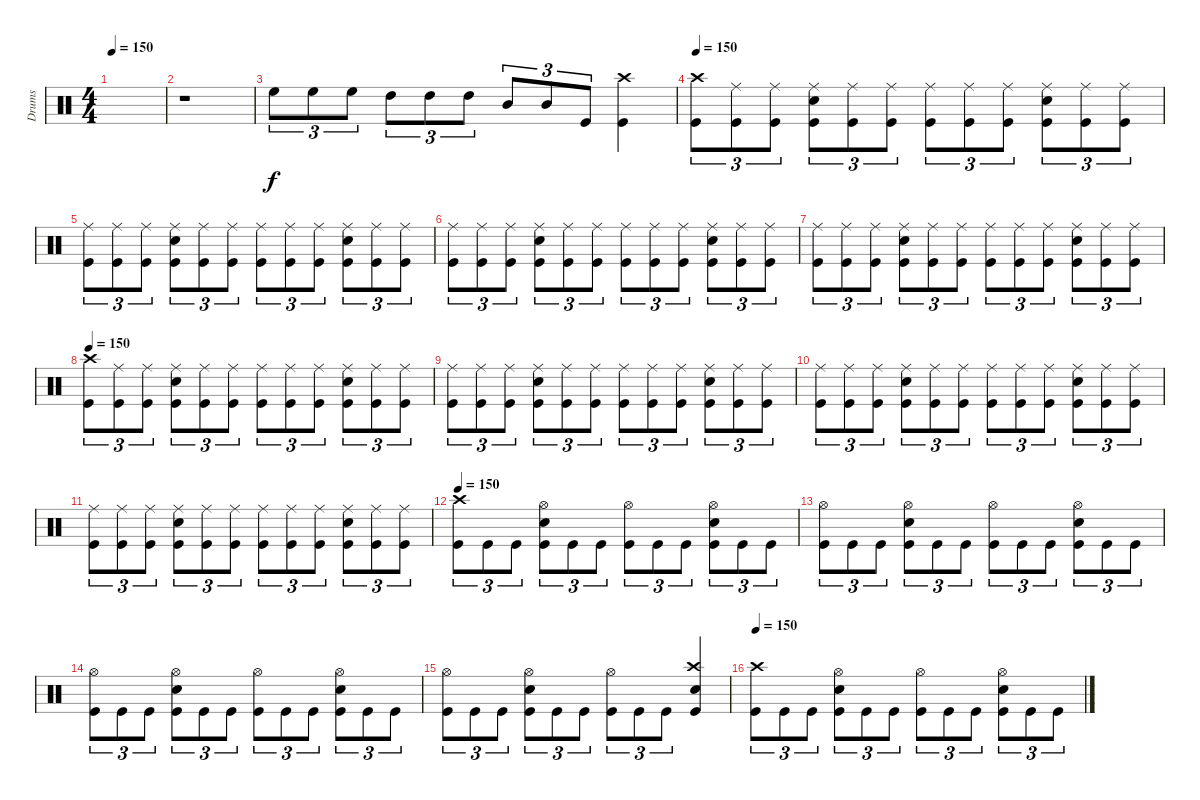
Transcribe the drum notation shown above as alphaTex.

\track ("Drums" "Drums") {instrument percussion}
\staff {score}
\articulation defaults
\ts (4 4)
\tempo 150
\clef neutral
\ks c
|
r.1 |
"High Floor Tom (hit)".8{tu (3 2)} "High Floor Tom (hit)".8{tu (3 2)} "High Floor Tom (hit)".8{tu (3 2)} "High Tom (hit)".8{tu (3 2)} "High Tom (hit)".8{tu (3 2)} "High Tom (hit)".8{tu (3 2)} "Mid Tom (hit)".8{tu (3 2)} "Mid Tom (hit)".8{tu (3 2)} "Kick (hit)".8{tu (3 2)} ("Crash high (hit)" "Kick (hit)").4 |
\tempo 150
("Crash high (hit)" "Kick (hit)").8{tu (3 2)} ("Ride (middle)" "Kick (hit)").8{tu (3 2)} ("Ride (middle)" "Kick (hit)").8{tu (3 2)} ("Ride (middle)" "Snare (hit) 2" "Kick (hit)").8{tu (3 2)} ("Ride (middle)" "Kick (hit)").8{tu (3 2)} ("Ride (middle)" "Kick (hit)").8{tu (3 2)} ("Ride (middle)" "Kick (hit)").8{tu (3 2)} ("Ride (middle)" "Kick (hit)").8{tu (3 2)} ("Ride (middle)" "Kick (hit)").8{tu (3 2)} ("Ride (middle)" "Snare (hit) 2" "Kick (hit)").8{tu (3 2)} ("Ride (middle)" "Kick (hit)").8{tu (3 2)} ("Ride (middle)" "Kick (hit)").8{tu (3 2)} |
("Ride (middle)" "Kick (hit)").8{tu (3 2)} ("Ride (middle)" "Kick (hit)").8{tu (3 2)} ("Ride (middle)" "Kick (hit)").8{tu (3 2)} ("Ride (middle)" "Snare (hit) 2" "Kick (hit)").8{tu (3 2)} ("Ride (middle)" "Kick (hit)").8{tu (3 2)} ("Ride (middle)" "Kick (hit)").8{tu (3 2)} ("Ride (middle)" "Kick (hit)").8{tu (3 2)} ("Ride (middle)" "Kick (hit)").8{tu (3 2)} ("Ride (middle)" "Kick (hit)").8{tu (3 2)} ("Ride (middle)" "Snare (hit) 2" "Kick (hit)").8{tu (3 2)} ("Ride (middle)" "Kick (hit)").8{tu (3 2)} ("Ride (middle)" "Kick (hit)").8{tu (3 2)} |
("Ride (middle)" "Kick (hit)").8{tu (3 2)} ("Ride (middle)" "Kick (hit)").8{tu (3 2)} ("Ride (middle)" "Kick (hit)").8{tu (3 2)} ("Ride (middle)" "Snare (hit) 2" "Kick (hit)").8{tu (3 2)} ("Ride (middle)" "Kick (hit)").8{tu (3 2)} ("Ride (middle)" "Kick (hit)").8{tu (3 2)} ("Ride (middle)" "Kick (hit)").8{tu (3 2)} ("Ride (middle)" "Kick (hit)").8{tu (3 2)} ("Ride (middle)" "Kick (hit)").8{tu (3 2)} ("Ride (middle)" "Snare (hit) 2" "Kick (hit)").8{tu (3 2)} ("Ride (middle)" "Kick (hit)").8{tu (3 2)} ("Ride (middle)" "Kick (hit)").8{tu (3 2)} |
("Ride (middle)" "Kick (hit)").8{tu (3 2)} ("Ride (middle)" "Kick (hit)").8{tu (3 2)} ("Ride (middle)" "Kick (hit)").8{tu (3 2)} ("Ride (middle)" "Snare (hit) 2" "Kick (hit)").8{tu (3 2)} ("Ride (middle)" "Kick (hit)").8{tu (3 2)} ("Ride (middle)" "Kick (hit)").8{tu (3 2)} ("Ride (middle)" "Kick (hit)").8{tu (3 2)} ("Ride (middle)" "Kick (hit)").8{tu (3 2)} ("Ride (middle)" "Kick (hit)").8{tu (3 2)} ("Ride (middle)" "Snare (hit) 2" "Kick (hit)").8{tu (3 2)} ("Ride (middle)" "Kick (hit)").8{tu (3 2)} ("Ride (middle)" "Kick (hit)").8{tu (3 2)} |
\tempo 150
("Crash high (hit)" "Kick (hit)").8{tu (3 2)} ("Ride (middle)" "Kick (hit)").8{tu (3 2)} ("Ride (middle)" "Kick (hit)").8{tu (3 2)} ("Ride (middle)" "Snare (hit) 2" "Kick (hit)").8{tu (3 2)} ("Ride (middle)" "Kick (hit)").8{tu (3 2)} ("Ride (middle)" "Kick (hit)").8{tu (3 2)} ("Ride (middle)" "Kick (hit)").8{tu (3 2)} ("Ride (middle)" "Kick (hit)").8{tu (3 2)} ("Ride (middle)" "Kick (hit)").8{tu (3 2)} ("Ride (middle)" "Snare (hit) 2" "Kick (hit)").8{tu (3 2)} ("Ride (middle)" "Kick (hit)").8{tu (3 2)} ("Ride (middle)" "Kick (hit)").8{tu (3 2)} |
("Ride (middle)" "Kick (hit)").8{tu (3 2)} ("Ride (middle)" "Kick (hit)").8{tu (3 2)} ("Ride (middle)" "Kick (hit)").8{tu (3 2)} ("Ride (middle)" "Snare (hit) 2" "Kick (hit)").8{tu (3 2)} ("Ride (middle)" "Kick (hit)").8{tu (3 2)} ("Ride (middle)" "Kick (hit)").8{tu (3 2)} ("Ride (middle)" "Kick (hit)").8{tu (3 2)} ("Ride (middle)" "Kick (hit)").8{tu (3 2)} ("Ride (middle)" "Kick (hit)").8{tu (3 2)} ("Ride (middle)" "Snare (hit) 2" "Kick (hit)").8{tu (3 2)} ("Ride (middle)" "Kick (hit)").8{tu (3 2)} ("Ride (middle)" "Kick (hit)").8{tu (3 2)} |
("Ride (middle)" "Kick (hit)").8{tu (3 2)} ("Ride (middle)" "Kick (hit)").8{tu (3 2)} ("Ride (middle)" "Kick (hit)").8{tu (3 2)} ("Ride (middle)" "Snare (hit) 2" "Kick (hit)").8{tu (3 2)} ("Ride (middle)" "Kick (hit)").8{tu (3 2)} ("Ride (middle)" "Kick (hit)").8{tu (3 2)} ("Ride (middle)" "Kick (hit)").8{tu (3 2)} ("Ride (middle)" "Kick (hit)").8{tu (3 2)} ("Ride (middle)" "Kick (hit)").8{tu (3 2)} ("Ride (middle)" "Snare (hit) 2" "Kick (hit)").8{tu (3 2)} ("Ride (middle)" "Kick (hit)").8{tu (3 2)} ("Ride (middle)" "Kick (hit)").8{tu (3 2)} |
("Ride (middle)" "Kick (hit)").8{tu (3 2)} ("Ride (middle)" "Kick (hit)").8{tu (3 2)} ("Ride (middle)" "Kick (hit)").8{tu (3 2)} ("Ride (middle)" "Snare (hit) 2" "Kick (hit)").8{tu (3 2)} ("Ride (middle)" "Kick (hit)").8{tu (3 2)} ("Ride (middle)" "Kick (hit)").8{tu (3 2)} ("Ride (middle)" "Kick (hit)").8{tu (3 2)} ("Ride (middle)" "Kick (hit)").8{tu (3 2)} ("Ride (middle)" "Kick (hit)").8{tu (3 2)} ("Ride (middle)" "Snare (hit) 2" "Kick (hit)").8{tu (3 2)} ("Ride (middle)" "Kick (hit)").8{tu (3 2)} ("Ride (middle)" "Kick (hit)").8{tu (3 2)} |
\tempo 150
("Crash high (hit)" "Kick (hit)").8{tu (3 2)} "Kick (hit)".8{tu (3 2)} "Kick (hit)".8{tu (3 2)} ("Hi-Hat (open)" "Snare (hit) 2" "Kick (hit)").8{tu (3 2)} "Kick (hit)".8{tu (3 2)} "Kick (hit)".8{tu (3 2)} ("Hi-Hat (open)" "Kick (hit)").8{tu (3 2)} "Kick (hit)".8{tu (3 2)} "Kick (hit)".8{tu (3 2)} ("Hi-Hat (open)" "Snare (hit) 2" "Kick (hit)").8{tu (3 2)} "Kick (hit)".8{tu (3 2)} "Kick (hit)".8{tu (3 2)} |
("Hi-Hat (open)" "Kick (hit)").8{tu (3 2)} "Kick (hit)".8{tu (3 2)} "Kick (hit)".8{tu (3 2)} ("Hi-Hat (open)" "Snare (hit) 2" "Kick (hit)").8{tu (3 2)} "Kick (hit)".8{tu (3 2)} "Kick (hit)".8{tu (3 2)} ("Hi-Hat (open)" "Kick (hit)").8{tu (3 2)} "Kick (hit)".8{tu (3 2)} "Kick (hit)".8{tu (3 2)} ("Hi-Hat (open)" "Snare (hit) 2" "Kick (hit)").8{tu (3 2)} "Kick (hit)".8{tu (3 2)} "Kick (hit)".8{tu (3 2)} |
("Hi-Hat (open)" "Kick (hit)").8{tu (3 2)} "Kick (hit)".8{tu (3 2)} "Kick (hit)".8{tu (3 2)} ("Hi-Hat (open)" "Snare (hit) 2" "Kick (hit)").8{tu (3 2)} "Kick (hit)".8{tu (3 2)} "Kick (hit)".8{tu (3 2)} ("Hi-Hat (open)" "Kick (hit)").8{tu (3 2)} "Kick (hit)".8{tu (3 2)} "Kick (hit)".8{tu (3 2)} ("Hi-Hat (open)" "Snare (hit) 2" "Kick (hit)").8{tu (3 2)} "Kick (hit)".8{tu (3 2)} "Kick (hit)".8{tu (3 2)} |
("Hi-Hat (open)" "Kick (hit)").8{tu (3 2)} "Kick (hit)".8{tu (3 2)} "Kick (hit)".8{tu (3 2)} ("Hi-Hat (open)" "Snare (hit) 2" "Kick (hit)").8{tu (3 2)} "Kick (hit)".8{tu (3 2)} "Kick (hit)".8{tu (3 2)} ("Hi-Hat (open)" "Kick (hit)").8{tu (3 2)} "Kick (hit)".8{tu (3 2)} "Kick (hit)".8{tu (3 2)} ("Crash high (hit)" "Snare (hit) 2" "Kick (hit)").4 |
\tempo 150
("Crash high (hit)" "Kick (hit)").8{tu (3 2)} "Kick (hit)".8{tu (3 2)} "Kick (hit)".8{tu (3 2)} ("Hi-Hat (open)" "Snare (hit) 2" "Kick (hit)").8{tu (3 2)} "Kick (hit)".8{tu (3 2)} "Kick (hit)".8{tu (3 2)} ("Hi-Hat (open)" "Kick (hit)").8{tu (3 2)} "Kick (hit)".8{tu (3 2)} "Kick (hit)".8{tu (3 2)} ("Hi-Hat (open)" "Snare (hit) 2" "Kick (hit)").8{tu (3 2)} "Kick (hit)".8{tu (3 2)} "Kick (hit)".8{tu (3 2)}
